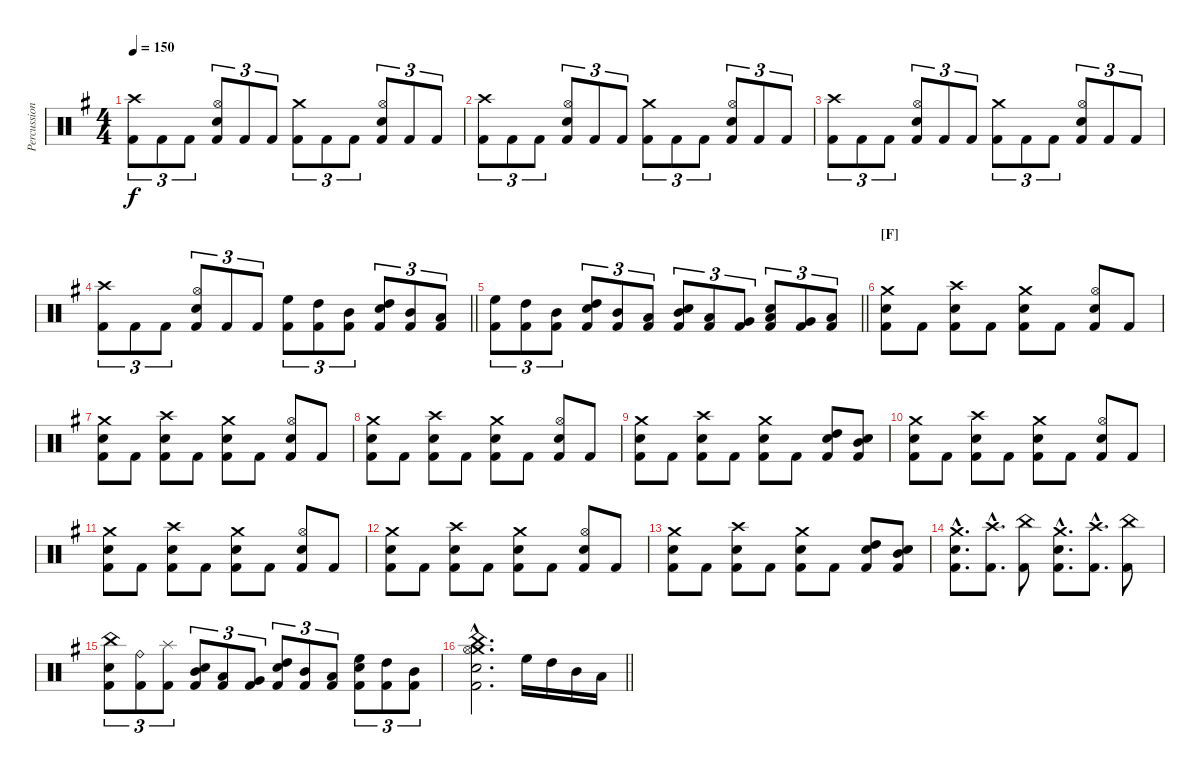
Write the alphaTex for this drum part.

\track ("Percussion" "Percussion") {instrument percussion}
\staff {score}
\articulation defaults
\ts (4 4)
\tempo 150
\clef neutral
\ks eminor
("Crash high (hit)" "Kick (hit) 2").8{tu (3 2) dy f} "Kick (hit) 2".8{tu (3 2)} "Kick (hit) 2".8{tu (3 2)} ("Hi-Hat (open)" "Snare (hit) 2" "Kick (hit) 2").8{tu (3 2)} "Kick (hit) 2".8{tu (3 2)} "Kick (hit) 2".8{tu (3 2)} ("Crash medium (hit)" "Kick (hit) 2").8{tu (3 2)} "Kick (hit) 2".8{tu (3 2)} "Kick (hit) 2".8{tu (3 2)} ("Hi-Hat (open)" "Snare (hit) 2" "Kick (hit) 2").8{tu (3 2)} "Kick (hit) 2".8{tu (3 2)} "Kick (hit) 2".8{tu (3 2)} |
("Crash high (hit)" "Kick (hit) 2").8{tu (3 2)} "Kick (hit) 2".8{tu (3 2)} "Kick (hit) 2".8{tu (3 2)} ("Hi-Hat (open)" "Snare (hit) 2" "Kick (hit) 2").8{tu (3 2)} "Kick (hit) 2".8{tu (3 2)} "Kick (hit) 2".8{tu (3 2)} ("Crash medium (hit)" "Kick (hit) 2").8{tu (3 2)} "Kick (hit) 2".8{tu (3 2)} "Kick (hit) 2".8{tu (3 2)} ("Hi-Hat (open)" "Snare (hit) 2" "Kick (hit) 2").8{tu (3 2)} "Kick (hit) 2".8{tu (3 2)} "Kick (hit) 2".8{tu (3 2)} |
("Crash high (hit)" "Kick (hit) 2").8{tu (3 2)} "Kick (hit) 2".8{tu (3 2)} "Kick (hit) 2".8{tu (3 2)} ("Hi-Hat (open)" "Snare (hit) 2" "Kick (hit) 2").8{tu (3 2)} "Kick (hit) 2".8{tu (3 2)} "Kick (hit) 2".8{tu (3 2)} ("Crash medium (hit)" "Kick (hit) 2").8{tu (3 2)} "Kick (hit) 2".8{tu (3 2)} "Kick (hit) 2".8{tu (3 2)} ("Hi-Hat (open)" "Snare (hit) 2" "Kick (hit) 2").8{tu (3 2)} "Kick (hit) 2".8{tu (3 2)} "Kick (hit) 2".8{tu (3 2)} |
\barLineRight lightlight
("Crash high (hit)" "Kick (hit) 2").8{tu (3 2)} "Kick (hit) 2".8{tu (3 2)} "Kick (hit) 2".8{tu (3 2)} ("Hi-Hat (open)" "Snare (hit) 2" "Kick (hit) 2").8{tu (3 2)} "Kick (hit) 2".8{tu (3 2)} "Kick (hit) 2".8{tu (3 2)} ("High Floor Tom (hit)" "Kick (hit) 2").8{tu (3 2)} ("High Tom (hit)" "Kick (hit) 2").8{tu (3 2)} ("Mid Tom (hit)" "Kick (hit) 2").8{tu (3 2)} ("High Tom (hit)" "Snare (hit) 2" "Kick (hit) 2").8{tu (3 2)} ("Mid Tom (hit)" "Kick (hit) 2").8{tu (3 2)} ("Low Tom (hit)" "Kick (hit) 2").8{tu (3 2)} |
\barLineRight lightlight
("High Floor Tom (hit)" "Kick (hit) 2").8{tu (3 2)} ("High Tom (hit)" "Kick (hit) 2").8{tu (3 2)} ("Mid Tom (hit)" "Kick (hit) 2").8{tu (3 2)} ("High Tom (hit)" "Snare (hit) 2" "Kick (hit) 2").8{tu (3 2)} ("Mid Tom (hit)" "Kick (hit) 2").8{tu (3 2)} ("Low Tom (hit)" "Kick (hit) 2").8{tu (3 2)} ("Mid Tom (hit)" "Snare (hit) 2" "Kick (hit) 2").8{tu (3 2)} ("Low Tom (hit)" "Kick (hit) 2").8{tu (3 2)} ("Very Low Tom (hit)" "Kick (hit) 2").8{tu (3 2)} ("Low Tom (hit)" "Snare (hit) 2" "Kick (hit) 2").8{tu (3 2)} ("Very Low Tom (hit)" "Kick (hit) 2").8{tu (3 2)} ("Low Floor Tom (hit)" "Kick (hit) 2").8{tu (3 2)} |
\section ("" "[F]")
("Crash medium (hit)" "Snare (hit) 2" "Kick (hit) 2").8 "Kick (hit) 2".8 ("Crash high (hit)" "Snare (hit) 2" "Kick (hit) 2").8 "Kick (hit) 2".8 ("Crash medium (hit)" "Snare (hit) 2" "Kick (hit) 2").8 "Kick (hit) 2".8 ("Hi-Hat (open)" "Snare (hit) 2" "Kick (hit) 2").8 "Kick (hit) 2".8 |
("Crash medium (hit)" "Snare (hit) 2" "Kick (hit) 2").8 "Kick (hit) 2".8 ("Crash high (hit)" "Snare (hit) 2" "Kick (hit) 2").8 "Kick (hit) 2".8 ("Crash medium (hit)" "Snare (hit) 2" "Kick (hit) 2").8 "Kick (hit) 2".8 ("Hi-Hat (open)" "Snare (hit) 2" "Kick (hit) 2").8 "Kick (hit) 2".8 |
("Crash medium (hit)" "Snare (hit) 2" "Kick (hit) 2").8 "Kick (hit) 2".8 ("Crash high (hit)" "Snare (hit) 2" "Kick (hit) 2").8 "Kick (hit) 2".8 ("Crash medium (hit)" "Snare (hit) 2" "Kick (hit) 2").8 "Kick (hit) 2".8 ("Hi-Hat (open)" "Snare (hit) 2" "Kick (hit) 2").8 "Kick (hit) 2".8 |
("Crash medium (hit)" "Snare (hit) 2" "Kick (hit) 2").8 "Kick (hit) 2".8 ("Crash high (hit)" "Snare (hit) 2" "Kick (hit) 2").8 "Kick (hit) 2".8 ("Crash medium (hit)" "Snare (hit) 2" "Kick (hit) 2").8 "Kick (hit) 2".8 ("High Tom (hit)" "Snare (hit) 2" "Kick (hit) 2").8 ("Mid Tom (hit)" "Snare (hit) 2" "Kick (hit) 2").8 |
("Crash medium (hit)" "Snare (hit) 2" "Kick (hit) 2").8 "Kick (hit) 2".8 ("Crash high (hit)" "Snare (hit) 2" "Kick (hit) 2").8 "Kick (hit) 2".8 ("Crash medium (hit)" "Snare (hit) 2" "Kick (hit) 2").8 "Kick (hit) 2".8 ("Hi-Hat (open)" "Snare (hit) 2" "Kick (hit) 2").8 "Kick (hit) 2".8 |
("Crash medium (hit)" "Snare (hit) 2" "Kick (hit) 2").8 "Kick (hit) 2".8 ("Crash high (hit)" "Snare (hit) 2" "Kick (hit) 2").8 "Kick (hit) 2".8 ("Crash medium (hit)" "Snare (hit) 2" "Kick (hit) 2").8 "Kick (hit) 2".8 ("Hi-Hat (open)" "Snare (hit) 2" "Kick (hit) 2").8 "Kick (hit) 2".8 |
("Crash medium (hit)" "Snare (hit) 2" "Kick (hit) 2").8 "Kick (hit) 2".8 ("Crash high (hit)" "Snare (hit) 2" "Kick (hit) 2").8 "Kick (hit) 2".8 ("Crash medium (hit)" "Snare (hit) 2" "Kick (hit) 2").8 "Kick (hit) 2".8 ("Hi-Hat (open)" "Snare (hit) 2" "Kick (hit) 2").8 "Kick (hit) 2".8 |
("Crash medium (hit)" "Snare (hit) 2" "Kick (hit) 2").8 "Kick (hit) 2".8 ("Crash high (hit)" "Snare (hit) 2" "Kick (hit) 2").8 "Kick (hit) 2".8 ("Crash medium (hit)" "Snare (hit) 2" "Kick (hit) 2").8 "Kick (hit) 2".8 ("High Tom (hit)" "Snare (hit) 2" "Kick (hit) 2").8 ("Mid Tom (hit)" "Snare (hit) 2" "Kick (hit) 2").8 |
("Crash medium (hit)"{hac} "Snare (hit) 2"{hac} "Kick (hit) 2"{hac}).8{d} ("Crash high (hit)"{hac} "Kick (hit) 2"{hac}).8{d} ("China (hit)" "Kick (hit) 2").8 ("Crash medium (hit)"{hac} "Snare (hit) 2"{hac} "Kick (hit) 2"{hac}).8{d} ("Crash high (hit)"{hac} "Kick (hit) 2"{hac}).8{d} ("China (hit)" "Kick (hit) 2").8 |
("China (hit)" "Snare (hit) 2" "Kick (hit) 2").8{tu (3 2)} ("Ride (bell)" "Kick (hit) 2").8{tu (3 2)} ("Splash (hit)" "Kick (hit) 2").8{tu (3 2)} ("Mid Tom (hit)" "Snare (hit) 2" "Kick (hit) 2").8{tu (3 2)} ("Low Tom (hit)" "Kick (hit) 2").8{tu (3 2)} ("Very Low Tom (hit)" "Kick (hit) 2").8{tu (3 2)} ("High Tom (hit)" "Snare (hit) 2" "Kick (hit) 2").8{tu (3 2)} ("Mid Tom (hit)" "Kick (hit) 2").8{tu (3 2)} ("Low Tom (hit)" "Kick (hit) 2").8{tu (3 2)} ("High Floor Tom (hit)" "Snare (hit) 2" "Kick (hit) 2").8{tu (3 2)} ("High Tom (hit)" "Kick (hit) 2").8{tu (3 2)} ("Mid Tom (hit)" "Kick (hit) 2").8{tu (3 2)} |
\barLineRight lightlight
("Crash medium (hit)"{hac} "China (hit)"{hac} "Hi-Hat (open)"{hac} "Snare (hit) 2"{hac} "Kick (hit) 2"{hac}).2{d} "High Floor Tom (hit)".16 "High Tom (hit)".16 "Mid Tom (hit)".16 "Low Tom (hit)".16
